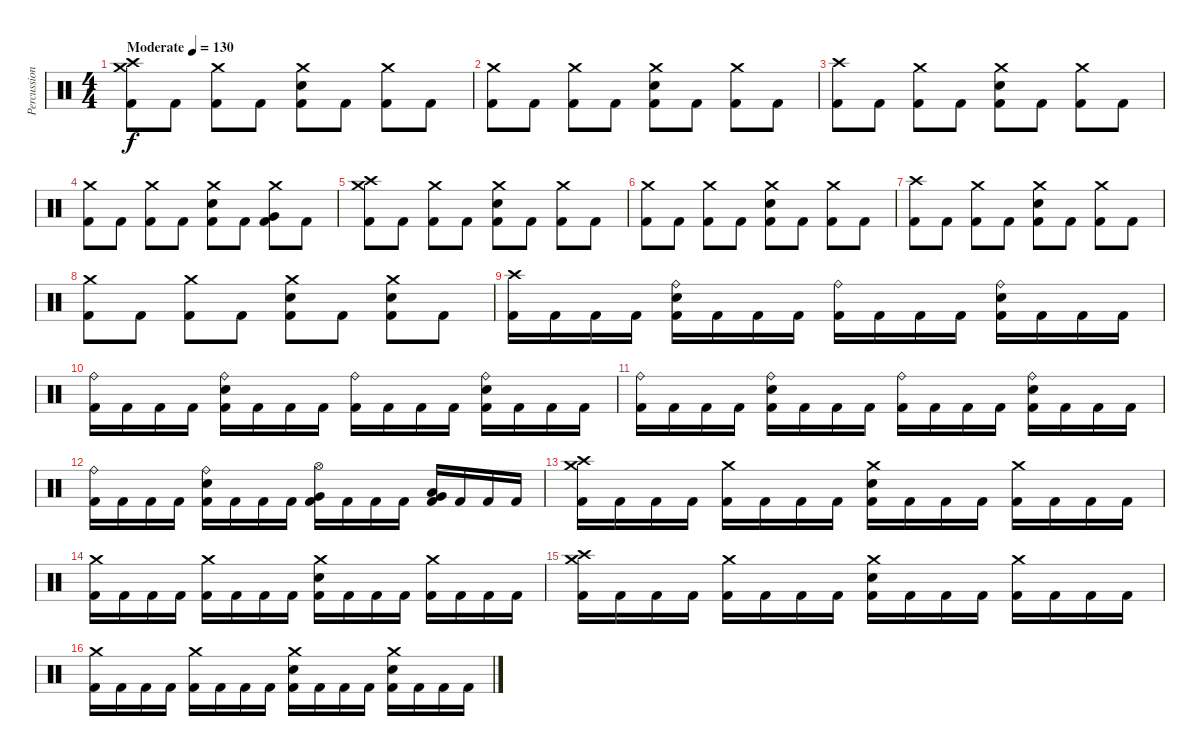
\track ("Percussion" "Percussion") {instrument percussion}
\staff {score}
\articulation defaults
\ts (4 4)
\tempo (130 "Moderate")
\clef neutral
\ks c
("Crash high (hit)" "Crash medium (hit)" "Kick (hit) 2").8{dy f} "Kick (hit) 2".8 ("Crash medium (hit)" "Kick (hit) 2").8 "Kick (hit) 2".8 ("Crash medium (hit)" "Snare (hit) 2" "Kick (hit) 2").8 "Kick (hit) 2".8 ("Crash medium (hit)" "Kick (hit) 2").8 "Kick (hit) 2".8 |
("Crash medium (hit)" "Kick (hit) 2").8 "Kick (hit) 2".8 ("Crash medium (hit)" "Kick (hit) 2").8 "Kick (hit) 2".8 ("Crash medium (hit)" "Snare (hit) 2" "Kick (hit) 2").8 "Kick (hit) 2".8 ("Crash medium (hit)" "Kick (hit) 2").8 "Kick (hit) 2".8 |
("Crash high (hit)" "Kick (hit) 2").8 "Kick (hit) 2".8 ("Crash medium (hit)" "Kick (hit) 2").8 "Kick (hit) 2".8 ("Crash medium (hit)" "Snare (hit) 2" "Kick (hit) 2").8 "Kick (hit) 2".8 ("Crash medium (hit)" "Kick (hit) 2").8 "Kick (hit) 2".8 |
("Crash medium (hit)" "Kick (hit) 2").8 "Kick (hit) 2".8 ("Crash medium (hit)" "Kick (hit) 2").8 "Kick (hit) 2".8 ("Crash medium (hit)" "Snare (hit) 2" "Kick (hit) 2").8 "Kick (hit) 2".8 ("Crash medium (hit)" "Very Low Tom (hit)" "Kick (hit) 2").8 "Kick (hit) 2".8 |
("Crash high (hit)" "Crash medium (hit)" "Kick (hit) 2").8 "Kick (hit) 2".8 ("Crash medium (hit)" "Kick (hit) 2").8 "Kick (hit) 2".8 ("Crash medium (hit)" "Snare (hit) 2" "Kick (hit) 2").8 "Kick (hit) 2".8 ("Crash medium (hit)" "Kick (hit) 2").8 "Kick (hit) 2".8 |
("Crash medium (hit)" "Kick (hit) 2").8 "Kick (hit) 2".8 ("Crash medium (hit)" "Kick (hit) 2").8 "Kick (hit) 2".8 ("Crash medium (hit)" "Snare (hit) 2" "Kick (hit) 2").8 "Kick (hit) 2".8 ("Crash medium (hit)" "Kick (hit) 2").8 "Kick (hit) 2".8 |
("Crash high (hit)" "Kick (hit) 2").8 "Kick (hit) 2".8 ("Crash medium (hit)" "Kick (hit) 2").8 "Kick (hit) 2".8 ("Crash medium (hit)" "Snare (hit) 2" "Kick (hit) 2").8 "Kick (hit) 2".8 ("Crash medium (hit)" "Kick (hit) 2").8 "Kick (hit) 2".8 |
("Crash medium (hit)" "Kick (hit) 2").8 "Kick (hit) 2".8 ("Crash medium (hit)" "Kick (hit) 2").8 "Kick (hit) 2".8 ("Crash medium (hit)" "Snare (hit) 2" "Kick (hit) 2").8 "Kick (hit) 2".8 ("Crash medium (hit)" "Snare (hit) 2" "Kick (hit) 2").8 "Kick (hit) 2".8 |
("Crash high (hit)" "Kick (hit) 2").16 "Kick (hit) 2".16 "Kick (hit) 2".16 "Kick (hit) 2".16 ("Ride (bell)" "Snare (hit) 2" "Kick (hit) 2").16 "Kick (hit) 2".16 "Kick (hit) 2".16 "Kick (hit) 2".16 ("Ride (bell)" "Kick (hit) 2").16 "Kick (hit) 2".16 "Kick (hit) 2".16 "Kick (hit) 2".16 ("Ride (bell)" "Snare (hit) 2" "Kick (hit) 2").16 "Kick (hit) 2".16 "Kick (hit) 2".16 "Kick (hit) 2".16 |
("Ride (bell)" "Kick (hit) 2").16 "Kick (hit) 2".16 "Kick (hit) 2".16 "Kick (hit) 2".16 ("Ride (bell)" "Snare (hit) 2" "Kick (hit) 2").16 "Kick (hit) 2".16 "Kick (hit) 2".16 "Kick (hit) 2".16 ("Ride (bell)" "Kick (hit) 2").16 "Kick (hit) 2".16 "Kick (hit) 2".16 "Kick (hit) 2".16 ("Ride (bell)" "Snare (hit) 2" "Kick (hit) 2").16 "Kick (hit) 2".16 "Kick (hit) 2".16 "Kick (hit) 2".16 |
("Ride (bell)" "Kick (hit) 2").16 "Kick (hit) 2".16 "Kick (hit) 2".16 "Kick (hit) 2".16 ("Ride (bell)" "Snare (hit) 2" "Kick (hit) 2").16 "Kick (hit) 2".16 "Kick (hit) 2".16 "Kick (hit) 2".16 ("Ride (bell)" "Kick (hit) 2").16 "Kick (hit) 2".16 "Kick (hit) 2".16 "Kick (hit) 2".16 ("Ride (bell)" "Snare (hit) 2" "Kick (hit) 2").16 "Kick (hit) 2".16 "Kick (hit) 2".16 "Kick (hit) 2".16 |
("Ride (bell)" "Kick (hit) 2").16 "Kick (hit) 2".16 "Kick (hit) 2".16 "Kick (hit) 2".16 ("Ride (bell)" "Snare (hit) 2" "Kick (hit) 2").16 "Kick (hit) 2".16 "Kick (hit) 2".16 "Kick (hit) 2".16 ("Hi-Hat (open)" "Very Low Tom (hit)" "Kick (hit) 2").16 "Kick (hit) 2".16 "Kick (hit) 2".16 "Kick (hit) 2".16 ("Low Floor Tom (hit)" "Very Low Tom (hit)" "Kick (hit) 2").16 "Kick (hit) 2".16 "Kick (hit) 2".16 "Kick (hit) 2".16 |
("Crash high (hit)" "Crash medium (hit)" "Kick (hit) 2").16 "Kick (hit) 2".16 "Kick (hit) 2".16 "Kick (hit) 2".16 ("Crash medium (hit)" "Kick (hit) 2").16 "Kick (hit) 2".16 "Kick (hit) 2".16 "Kick (hit) 2".16 ("Crash medium (hit)" "Snare (hit) 2" "Kick (hit) 2").16 "Kick (hit) 2".16 "Kick (hit) 2".16 "Kick (hit) 2".16 ("Crash medium (hit)" "Kick (hit) 2").16 "Kick (hit) 2".16 "Kick (hit) 2".16 "Kick (hit) 2".16 |
("Crash medium (hit)" "Kick (hit) 2").16 "Kick (hit) 2".16 "Kick (hit) 2".16 "Kick (hit) 2".16 ("Crash medium (hit)" "Kick (hit) 2").16 "Kick (hit) 2".16 "Kick (hit) 2".16 "Kick (hit) 2".16 ("Crash medium (hit)" "Snare (hit) 2" "Kick (hit) 2").16 "Kick (hit) 2".16 "Kick (hit) 2".16 "Kick (hit) 2".16 ("Crash medium (hit)" "Kick (hit) 2").16 "Kick (hit) 2".16 "Kick (hit) 2".16 "Kick (hit) 2".16 |
("Crash high (hit)" "Crash medium (hit)" "Kick (hit) 2").16 "Kick (hit) 2".16 "Kick (hit) 2".16 "Kick (hit) 2".16 ("Crash medium (hit)" "Kick (hit) 2").16 "Kick (hit) 2".16 "Kick (hit) 2".16 "Kick (hit) 2".16 ("Crash medium (hit)" "Snare (hit) 2" "Kick (hit) 2").16 "Kick (hit) 2".16 "Kick (hit) 2".16 "Kick (hit) 2".16 ("Crash medium (hit)" "Kick (hit) 2").16 "Kick (hit) 2".16 "Kick (hit) 2".16 "Kick (hit) 2".16 |
("Crash medium (hit)" "Kick (hit) 2").16 "Kick (hit) 2".16 "Kick (hit) 2".16 "Kick (hit) 2".16 ("Crash medium (hit)" "Kick (hit) 2").16 "Kick (hit) 2".16 "Kick (hit) 2".16 "Kick (hit) 2".16 ("Crash medium (hit)" "Snare (hit) 2" "Kick (hit) 2").16 "Kick (hit) 2".16 "Kick (hit) 2".16 "Kick (hit) 2".16 ("Crash medium (hit)" "Snare (hit) 2" "Kick (hit) 2").16 "Kick (hit) 2".16 "Kick (hit) 2".16 "Kick (hit) 2".16
